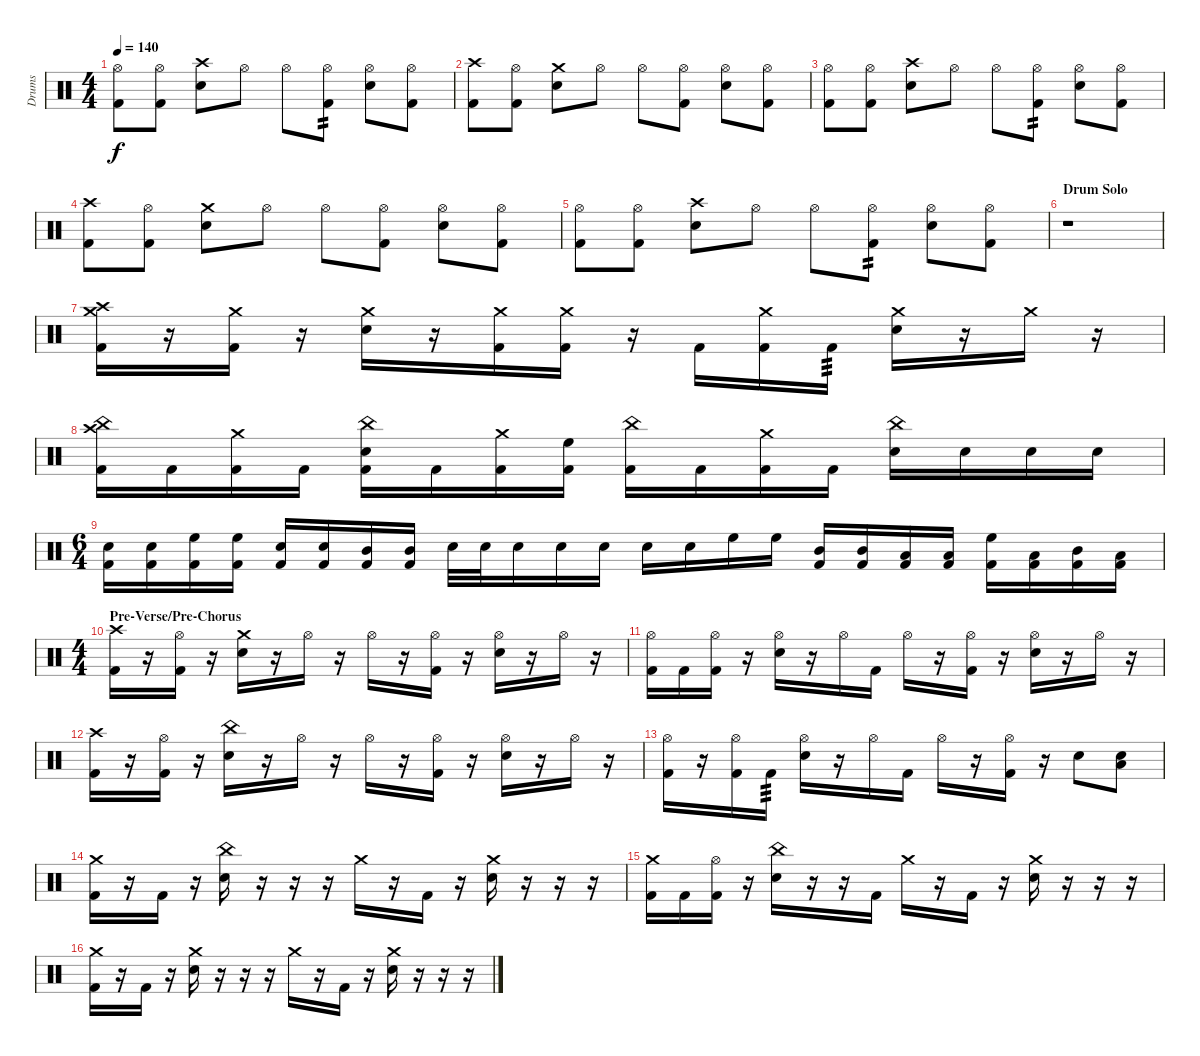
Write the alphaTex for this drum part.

\track ("Drums" "Drums") {instrument percussion}
\staff {score}
\articulation defaults
\ts (4 4)
\tempo 140
\clef neutral
\ks c
("Hi-Hat (open)" "Kick (hit) 2").8{dy f} ("Hi-Hat (open)" "Kick (hit) 2").8 ("Crash high (hit)" "Snare (hit) 2").8 "Hi-Hat (open)".8 "Hi-Hat (open)".8 ("Hi-Hat (open)" "Kick (hit) 2").8{tp 2} ("Hi-Hat (open)" "Snare (hit) 2").8 ("Hi-Hat (open)" "Kick (hit) 2").8 |
("Crash high (hit)" "Kick (hit) 2").8 ("Hi-Hat (open)" "Kick (hit) 2").8 ("Crash medium (hit)" "Snare (hit) 2").8 "Hi-Hat (open)".8 "Hi-Hat (open)".8 ("Hi-Hat (open)" "Kick (hit) 2").8 ("Hi-Hat (open)" "Snare (hit) 2").8 ("Hi-Hat (open)" "Kick (hit) 2").8 |
("Hi-Hat (open)" "Kick (hit) 2").8 ("Hi-Hat (open)" "Kick (hit) 2").8 ("Crash high (hit)" "Snare (hit) 2").8 "Hi-Hat (open)".8 "Hi-Hat (open)".8 ("Hi-Hat (open)" "Kick (hit) 2").8{tp 2} ("Hi-Hat (open)" "Snare (hit) 2").8 ("Hi-Hat (open)" "Kick (hit) 2").8 |
("Crash high (hit)" "Kick (hit) 2").8 ("Hi-Hat (open)" "Kick (hit) 2").8 ("Crash medium (hit)" "Snare (hit) 2").8 "Hi-Hat (open)".8 "Hi-Hat (open)".8 ("Hi-Hat (open)" "Kick (hit) 2").8 ("Hi-Hat (open)" "Snare (hit) 2").8 ("Hi-Hat (open)" "Kick (hit) 2").8 |
("Hi-Hat (open)" "Kick (hit) 2").8 ("Hi-Hat (open)" "Kick (hit) 2").8 ("Crash high (hit)" "Snare (hit) 2").8 "Hi-Hat (open)".8 "Hi-Hat (open)".8 ("Hi-Hat (open)" "Kick (hit) 2").8{tp 2} ("Hi-Hat (open)" "Snare (hit) 2").8 ("Hi-Hat (open)" "Kick (hit) 2").8 |
\section ("" "Drum Solo")
r.1 |
("Crash medium (hit)" "Crash high (hit)" "Kick (hit) 2").16 r.16 ("Crash medium (hit)" "Kick (hit) 2").16 r.16 ("Crash medium (hit)" "Snare (hit) 2").16 r.16 ("Crash medium (hit)" "Kick (hit) 2").16 ("Crash medium (hit)" "Kick (hit) 2").16 r.16 "Kick (hit) 2".16 ("Crash medium (hit)" "Kick (hit) 2").16 "Kick (hit) 2".16{tp 3} ("Crash medium (hit)" "Snare (hit) 2").16 r.16 "Crash medium (hit)".16 r.16 |
("China (hit)" "Crash high (hit)" "Kick (hit) 2").16 "Kick (hit) 2".16 ("Crash medium (hit)" "Kick (hit) 2").16 "Kick (hit) 2".16 ("China (hit)" "Snare (hit) 2" "Kick (hit) 2").16 "Kick (hit) 2".16 ("Crash medium (hit)" "Kick (hit) 2").16 ("High Floor Tom (hit)" "Kick (hit) 2").16 ("China (hit)" "Kick (hit) 2").16 "Kick (hit) 2".16 ("Crash medium (hit)" "Kick (hit) 2").16 "Kick (hit) 2".16 ("China (hit)" "Snare (hit) 2").16 "Snare (hit) 2".16 "Snare (hit) 2".16 "Snare (hit) 2".16 |
\ts (6 4)
("Snare (hit) 2" "Kick (hit) 2").16 ("Snare (hit) 2" "Kick (hit) 2").16 ("High Floor Tom (hit)" "Kick (hit) 2").16 ("High Floor Tom (hit)" "Kick (hit) 2").16 ("Snare (hit) 2" "Kick (hit) 2").16 ("Snare (hit) 2" "Kick (hit) 2").16 ("Mid Tom (hit)" "Kick (hit) 2").16 ("Mid Tom (hit)" "Kick (hit) 2").16 "Snare (hit) 2".32 "Snare (hit) 2".32 "Snare (hit) 2".16 "Snare (hit) 2".16 "Snare (hit) 2".16 "Snare (hit) 2".16 "Snare (hit) 2".16 "High Floor Tom (hit)".16 "High Floor Tom (hit)".16 ("Mid Tom (hit)" "Kick (hit) 2").16 ("Mid Tom (hit)" "Kick (hit) 2").16 ("Low Tom (hit)" "Kick (hit) 2").16 ("Low Tom (hit)" "Kick (hit) 2").16 ("High Floor Tom (hit)" "Kick (hit) 2").16 ("Low Tom (hit)" "Kick (hit) 2").16 ("Mid Tom (hit)" "Kick (hit) 2").16 ("Low Floor Tom (hit)" "Kick (hit) 2").16 |
\ts (4 4)
\section ("" "Pre-Verse/Pre-Chorus")
("Crash high (hit)" "Kick (hit) 2").16 r.16 ("Hi-Hat (open)" "Kick (hit) 2").16 r.16 ("Crash medium (hit)" "Snare (hit) 2").16 r.16 "Hi-Hat (open)".16 r.16 "Hi-Hat (open)".16 r.16 ("Hi-Hat (open)" "Kick (hit) 2").16 r.16 ("Hi-Hat (open)" "Snare (hit) 2").16 r.16 "Hi-Hat (open)".16 r.16 |
("Hi-Hat (open)" "Kick (hit) 2").16 "Kick (hit) 2".16 ("Hi-Hat (open)" "Kick (hit) 2").16 r.16 ("Hi-Hat (open)" "Snare (hit) 2").16 r.16 "Hi-Hat (open)".16 "Kick (hit) 2".16 "Hi-Hat (open)".16 r.16 ("Hi-Hat (open)" "Kick (hit) 2").16 r.16 ("Hi-Hat (open)" "Snare (hit) 2").16 r.16 "Hi-Hat (open)".16 r.16 |
("Crash high (hit)" "Kick (hit) 2").16 r.16 ("Hi-Hat (open)" "Kick (hit) 2").16 r.16 ("China (hit)" "Snare (hit) 2").16 r.16 "Hi-Hat (open)".16 r.16 "Hi-Hat (open)".16 r.16 ("Hi-Hat (open)" "Kick (hit) 2").16 r.16 ("Hi-Hat (open)" "Snare (hit) 2").16 r.16 "Hi-Hat (open)".16 r.16 |
("Hi-Hat (open)" "Kick (hit) 2").16 r.16 ("Hi-Hat (open)" "Kick (hit) 2").16 "Kick (hit) 2".16{tp 3} ("Hi-Hat (open)" "Snare (hit) 2").16 r.16 "Hi-Hat (open)".16 "Kick (hit) 2".16 "Hi-Hat (open)".16 r.16 ("Hi-Hat (open)" "Kick (hit) 2").16 r.16 "Snare (hit) 2".8 ("Snare (hit) 2" "Low Tom (hit)").8 |
("Crash medium (hit)" "Kick (hit) 2").16 r.16 "Kick (hit) 2".16 r.16 ("China (hit)" "Snare (hit) 2").16 r.16 r.16 r.16 "Crash medium (hit)".16 r.16 "Kick (hit) 2".16 r.16 ("Crash medium (hit)" "Snare (hit) 2").16 r.16 r.16 r.16 |
("Crash medium (hit)" "Kick (hit) 2").16 "Kick (hit) 2".16 ("Hi-Hat (open)" "Kick (hit) 2").16 r.16 ("China (hit)" "Snare (hit) 2").16 r.16 r.16 "Kick (hit) 2".16 "Crash medium (hit)".16 r.16 "Kick (hit) 2".16 r.16 ("Crash medium (hit)" "Snare (hit) 2").16 r.16 r.16 r.16 |
("Crash medium (hit)" "Kick (hit) 2").16 r.16 "Kick (hit) 2".16 r.16 ("Crash medium (hit)" "Snare (hit) 2").16 r.16 r.16 r.16 "Crash medium (hit)".16 r.16 "Kick (hit) 2".16 r.16 ("Crash medium (hit)" "Snare (hit) 2").16 r.16 r.16 r.16
